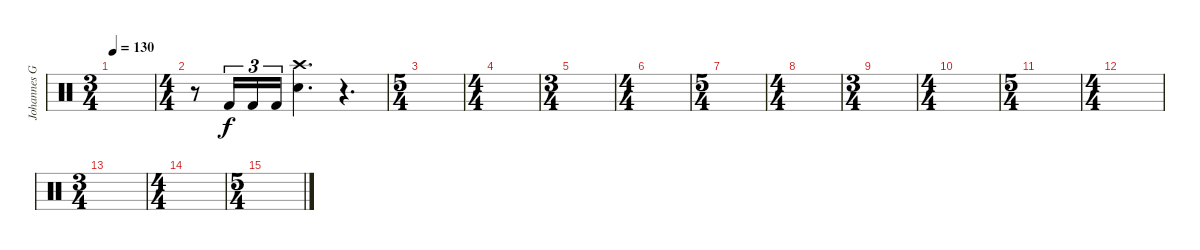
\track ("Johannes Grossmann" "Johannes G") {instrument percussion}
\staff {score}
\articulation defaults
\ts (3 4)
\tempo 130
\clef neutral
\ks c
|
\ts (4 4)
r.8 "Kick (hit) 2".16{tu (3 2)} "Kick (hit) 2".16{tu (3 2)} "Kick (hit) 2".16{tu (3 2)} ("Crash high (hit)" "Snare (hit) 2").4{d} r.4{d} |
\ts (5 4)
|
\ts (4 4)
|
\ts (3 4)
|
\ts (4 4)
|
\ts (5 4)
|
\ts (4 4)
|
\ts (3 4)
|
\ts (4 4)
|
\ts (5 4)
|
\ts (4 4)
|
\ts (3 4)
|
\ts (4 4)
|
\ts (5 4)
